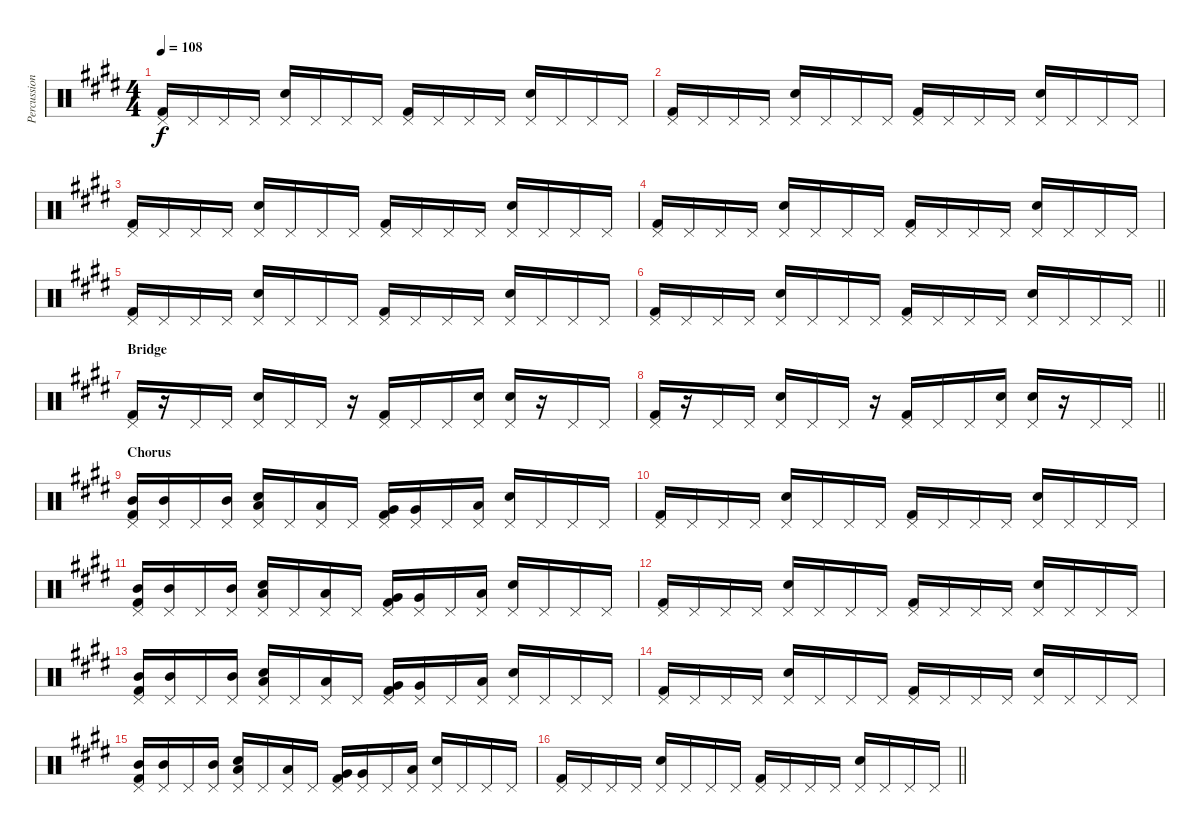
\track ("Percussion" "Percussion") {instrument percussion}
\staff {score}
\articulation defaults
\ts (4 4)
\tempo 108
\clef neutral
\ks e
("Pedal Hi-Hat (hit)" "Kick (hit) 2").16{dy f} "Pedal Hi-Hat (hit)".16 "Pedal Hi-Hat (hit)".16 "Pedal Hi-Hat (hit)".16 ("Pedal Hi-Hat (hit)" "Snare (hit) 2").16 "Pedal Hi-Hat (hit)".16 "Pedal Hi-Hat (hit)".16 "Pedal Hi-Hat (hit)".16 ("Pedal Hi-Hat (hit)" "Kick (hit) 2").16 "Pedal Hi-Hat (hit)".16 "Pedal Hi-Hat (hit)".16 "Pedal Hi-Hat (hit)".16 ("Pedal Hi-Hat (hit)" "Snare (hit) 2").16 "Pedal Hi-Hat (hit)".16 "Pedal Hi-Hat (hit)".16 "Pedal Hi-Hat (hit)".16 |
("Pedal Hi-Hat (hit)" "Kick (hit) 2").16 "Pedal Hi-Hat (hit)".16 "Pedal Hi-Hat (hit)".16 "Pedal Hi-Hat (hit)".16 ("Pedal Hi-Hat (hit)" "Snare (hit) 2").16 "Pedal Hi-Hat (hit)".16 "Pedal Hi-Hat (hit)".16 "Pedal Hi-Hat (hit)".16 ("Pedal Hi-Hat (hit)" "Kick (hit) 2").16 "Pedal Hi-Hat (hit)".16 "Pedal Hi-Hat (hit)".16 "Pedal Hi-Hat (hit)".16 ("Pedal Hi-Hat (hit)" "Snare (hit) 2").16 "Pedal Hi-Hat (hit)".16 "Pedal Hi-Hat (hit)".16 "Pedal Hi-Hat (hit)".16 |
("Pedal Hi-Hat (hit)" "Kick (hit) 2").16 "Pedal Hi-Hat (hit)".16 "Pedal Hi-Hat (hit)".16 "Pedal Hi-Hat (hit)".16 ("Pedal Hi-Hat (hit)" "Snare (hit) 2").16 "Pedal Hi-Hat (hit)".16 "Pedal Hi-Hat (hit)".16 "Pedal Hi-Hat (hit)".16 ("Pedal Hi-Hat (hit)" "Kick (hit) 2").16 "Pedal Hi-Hat (hit)".16 "Pedal Hi-Hat (hit)".16 "Pedal Hi-Hat (hit)".16 ("Pedal Hi-Hat (hit)" "Snare (hit) 2").16 "Pedal Hi-Hat (hit)".16 "Pedal Hi-Hat (hit)".16 "Pedal Hi-Hat (hit)".16 |
("Pedal Hi-Hat (hit)" "Kick (hit) 2").16 "Pedal Hi-Hat (hit)".16 "Pedal Hi-Hat (hit)".16 "Pedal Hi-Hat (hit)".16 ("Pedal Hi-Hat (hit)" "Snare (hit) 2").16 "Pedal Hi-Hat (hit)".16 "Pedal Hi-Hat (hit)".16 "Pedal Hi-Hat (hit)".16 ("Pedal Hi-Hat (hit)" "Kick (hit) 2").16 "Pedal Hi-Hat (hit)".16 "Pedal Hi-Hat (hit)".16 "Pedal Hi-Hat (hit)".16 ("Pedal Hi-Hat (hit)" "Snare (hit) 2").16 "Pedal Hi-Hat (hit)".16 "Pedal Hi-Hat (hit)".16 "Pedal Hi-Hat (hit)".16 |
("Pedal Hi-Hat (hit)" "Kick (hit) 2").16 "Pedal Hi-Hat (hit)".16 "Pedal Hi-Hat (hit)".16 "Pedal Hi-Hat (hit)".16 ("Pedal Hi-Hat (hit)" "Snare (hit) 2").16 "Pedal Hi-Hat (hit)".16 "Pedal Hi-Hat (hit)".16 "Pedal Hi-Hat (hit)".16 ("Pedal Hi-Hat (hit)" "Kick (hit) 2").16 "Pedal Hi-Hat (hit)".16 "Pedal Hi-Hat (hit)".16 "Pedal Hi-Hat (hit)".16 ("Pedal Hi-Hat (hit)" "Snare (hit) 2").16 "Pedal Hi-Hat (hit)".16 "Pedal Hi-Hat (hit)".16 "Pedal Hi-Hat (hit)".16 |
\barLineRight lightlight
("Pedal Hi-Hat (hit)" "Kick (hit) 2").16 "Pedal Hi-Hat (hit)".16 "Pedal Hi-Hat (hit)".16 "Pedal Hi-Hat (hit)".16 ("Pedal Hi-Hat (hit)" "Snare (hit) 2").16 "Pedal Hi-Hat (hit)".16 "Pedal Hi-Hat (hit)".16 "Pedal Hi-Hat (hit)".16 ("Pedal Hi-Hat (hit)" "Kick (hit) 2").16 "Pedal Hi-Hat (hit)".16 "Pedal Hi-Hat (hit)".16 "Pedal Hi-Hat (hit)".16 ("Pedal Hi-Hat (hit)" "Snare (hit) 2").16 "Pedal Hi-Hat (hit)".16 "Pedal Hi-Hat (hit)".16 "Pedal Hi-Hat (hit)".16 |
\section ("" "Bridge")
("Pedal Hi-Hat (hit)" "Kick (hit) 2").16 r.16 "Pedal Hi-Hat (hit)".16 "Pedal Hi-Hat (hit)".16 ("Pedal Hi-Hat (hit)" "Snare (hit) 2").16 "Pedal Hi-Hat (hit)".16 "Pedal Hi-Hat (hit)".16 r.16 ("Pedal Hi-Hat (hit)" "Kick (hit) 2").16 "Pedal Hi-Hat (hit)".16 "Pedal Hi-Hat (hit)".16 ("Pedal Hi-Hat (hit)" "Snare (hit) 2").16 ("Pedal Hi-Hat (hit)" "Snare (hit) 2").16 r.16 "Pedal Hi-Hat (hit)".16 "Pedal Hi-Hat (hit)".16 |
\barLineRight lightlight
("Pedal Hi-Hat (hit)" "Kick (hit) 2").16 r.16 "Pedal Hi-Hat (hit)".16 "Pedal Hi-Hat (hit)".16 ("Pedal Hi-Hat (hit)" "Snare (hit) 2").16 "Pedal Hi-Hat (hit)".16 "Pedal Hi-Hat (hit)".16 r.16 ("Pedal Hi-Hat (hit)" "Kick (hit) 2").16 "Pedal Hi-Hat (hit)".16 "Pedal Hi-Hat (hit)".16 ("Pedal Hi-Hat (hit)" "Snare (hit) 2").16 ("Pedal Hi-Hat (hit)" "Snare (hit) 2").16 r.16 "Pedal Hi-Hat (hit)".16 "Pedal Hi-Hat (hit)".16 |
\section ("" "Chorus")
("Pedal Hi-Hat (hit)" "Mid Tom (hit)" "Kick (hit) 2").16 ("Pedal Hi-Hat (hit)" "Mid Tom (hit)").16 "Pedal Hi-Hat (hit)".16 ("Pedal Hi-Hat (hit)" "Mid Tom (hit)").16 ("Pedal Hi-Hat (hit)" "Low Tom (hit)" "Snare (hit) 2").16 "Pedal Hi-Hat (hit)".16 ("Pedal Hi-Hat (hit)" "Low Tom (hit)").16 "Pedal Hi-Hat (hit)".16 ("Pedal Hi-Hat (hit)" "Very Low Tom (hit)" "Kick (hit) 2").16 ("Pedal Hi-Hat (hit)" "Very Low Tom (hit)").16 "Pedal Hi-Hat (hit)".16 ("Pedal Hi-Hat (hit)" "Low Floor Tom (hit)").16 ("Pedal Hi-Hat (hit)" "Snare (hit) 2").16 "Pedal Hi-Hat (hit)".16 "Pedal Hi-Hat (hit)".16 "Pedal Hi-Hat (hit)".16 |
("Pedal Hi-Hat (hit)" "Kick (hit) 2").16 "Pedal Hi-Hat (hit)".16 "Pedal Hi-Hat (hit)".16 "Pedal Hi-Hat (hit)".16 ("Pedal Hi-Hat (hit)" "Snare (hit) 2").16 "Pedal Hi-Hat (hit)".16 "Pedal Hi-Hat (hit)".16 "Pedal Hi-Hat (hit)".16 ("Pedal Hi-Hat (hit)" "Kick (hit) 2").16 "Pedal Hi-Hat (hit)".16 "Pedal Hi-Hat (hit)".16 "Pedal Hi-Hat (hit)".16 ("Pedal Hi-Hat (hit)" "Snare (hit) 2").16 "Pedal Hi-Hat (hit)".16 "Pedal Hi-Hat (hit)".16 "Pedal Hi-Hat (hit)".16 |
("Pedal Hi-Hat (hit)" "Mid Tom (hit)" "Kick (hit) 2").16 ("Pedal Hi-Hat (hit)" "Mid Tom (hit)").16 "Pedal Hi-Hat (hit)".16 ("Pedal Hi-Hat (hit)" "Mid Tom (hit)").16 ("Pedal Hi-Hat (hit)" "Low Tom (hit)" "Snare (hit) 2").16 "Pedal Hi-Hat (hit)".16 ("Pedal Hi-Hat (hit)" "Low Tom (hit)").16 "Pedal Hi-Hat (hit)".16 ("Pedal Hi-Hat (hit)" "Very Low Tom (hit)" "Kick (hit) 2").16 ("Pedal Hi-Hat (hit)" "Very Low Tom (hit)").16 "Pedal Hi-Hat (hit)".16 ("Pedal Hi-Hat (hit)" "Low Floor Tom (hit)").16 ("Pedal Hi-Hat (hit)" "Snare (hit) 2").16 "Pedal Hi-Hat (hit)".16 "Pedal Hi-Hat (hit)".16 "Pedal Hi-Hat (hit)".16 |
("Pedal Hi-Hat (hit)" "Kick (hit) 2").16 "Pedal Hi-Hat (hit)".16 "Pedal Hi-Hat (hit)".16 "Pedal Hi-Hat (hit)".16 ("Pedal Hi-Hat (hit)" "Snare (hit) 2").16 "Pedal Hi-Hat (hit)".16 "Pedal Hi-Hat (hit)".16 "Pedal Hi-Hat (hit)".16 ("Pedal Hi-Hat (hit)" "Kick (hit) 2").16 "Pedal Hi-Hat (hit)".16 "Pedal Hi-Hat (hit)".16 "Pedal Hi-Hat (hit)".16 ("Pedal Hi-Hat (hit)" "Snare (hit) 2").16 "Pedal Hi-Hat (hit)".16 "Pedal Hi-Hat (hit)".16 "Pedal Hi-Hat (hit)".16 |
("Pedal Hi-Hat (hit)" "Mid Tom (hit)" "Kick (hit) 2").16 ("Pedal Hi-Hat (hit)" "Mid Tom (hit)").16 "Pedal Hi-Hat (hit)".16 ("Pedal Hi-Hat (hit)" "Mid Tom (hit)").16 ("Pedal Hi-Hat (hit)" "Low Tom (hit)" "Snare (hit) 2").16 "Pedal Hi-Hat (hit)".16 ("Pedal Hi-Hat (hit)" "Low Tom (hit)").16 "Pedal Hi-Hat (hit)".16 ("Pedal Hi-Hat (hit)" "Very Low Tom (hit)" "Kick (hit) 2").16 ("Pedal Hi-Hat (hit)" "Very Low Tom (hit)").16 "Pedal Hi-Hat (hit)".16 ("Pedal Hi-Hat (hit)" "Low Floor Tom (hit)").16 ("Pedal Hi-Hat (hit)" "Snare (hit) 2").16 "Pedal Hi-Hat (hit)".16 "Pedal Hi-Hat (hit)".16 "Pedal Hi-Hat (hit)".16 |
("Pedal Hi-Hat (hit)" "Kick (hit) 2").16 "Pedal Hi-Hat (hit)".16 "Pedal Hi-Hat (hit)".16 "Pedal Hi-Hat (hit)".16 ("Pedal Hi-Hat (hit)" "Snare (hit) 2").16 "Pedal Hi-Hat (hit)".16 "Pedal Hi-Hat (hit)".16 "Pedal Hi-Hat (hit)".16 ("Pedal Hi-Hat (hit)" "Kick (hit) 2").16 "Pedal Hi-Hat (hit)".16 "Pedal Hi-Hat (hit)".16 "Pedal Hi-Hat (hit)".16 ("Pedal Hi-Hat (hit)" "Snare (hit) 2").16 "Pedal Hi-Hat (hit)".16 "Pedal Hi-Hat (hit)".16 "Pedal Hi-Hat (hit)".16 |
("Pedal Hi-Hat (hit)" "Mid Tom (hit)" "Kick (hit) 2").16 ("Pedal Hi-Hat (hit)" "Mid Tom (hit)").16 "Pedal Hi-Hat (hit)".16 ("Pedal Hi-Hat (hit)" "Mid Tom (hit)").16 ("Pedal Hi-Hat (hit)" "Low Tom (hit)" "Snare (hit) 2").16 "Pedal Hi-Hat (hit)".16 ("Pedal Hi-Hat (hit)" "Low Tom (hit)").16 "Pedal Hi-Hat (hit)".16 ("Pedal Hi-Hat (hit)" "Very Low Tom (hit)" "Kick (hit) 2").16 ("Pedal Hi-Hat (hit)" "Very Low Tom (hit)").16 "Pedal Hi-Hat (hit)".16 ("Pedal Hi-Hat (hit)" "Low Floor Tom (hit)").16 ("Pedal Hi-Hat (hit)" "Snare (hit) 2").16 "Pedal Hi-Hat (hit)".16 "Pedal Hi-Hat (hit)".16 "Pedal Hi-Hat (hit)".16 |
\barLineRight lightlight
("Pedal Hi-Hat (hit)" "Kick (hit) 2").16 "Pedal Hi-Hat (hit)".16 "Pedal Hi-Hat (hit)".16 "Pedal Hi-Hat (hit)".16 ("Pedal Hi-Hat (hit)" "Snare (hit) 2").16 "Pedal Hi-Hat (hit)".16 "Pedal Hi-Hat (hit)".16 "Pedal Hi-Hat (hit)".16 ("Pedal Hi-Hat (hit)" "Kick (hit) 2").16 "Pedal Hi-Hat (hit)".16 "Pedal Hi-Hat (hit)".16 "Pedal Hi-Hat (hit)".16 ("Pedal Hi-Hat (hit)" "Snare (hit) 2").16 "Pedal Hi-Hat (hit)".16 "Pedal Hi-Hat (hit)".16 "Pedal Hi-Hat (hit)".16
